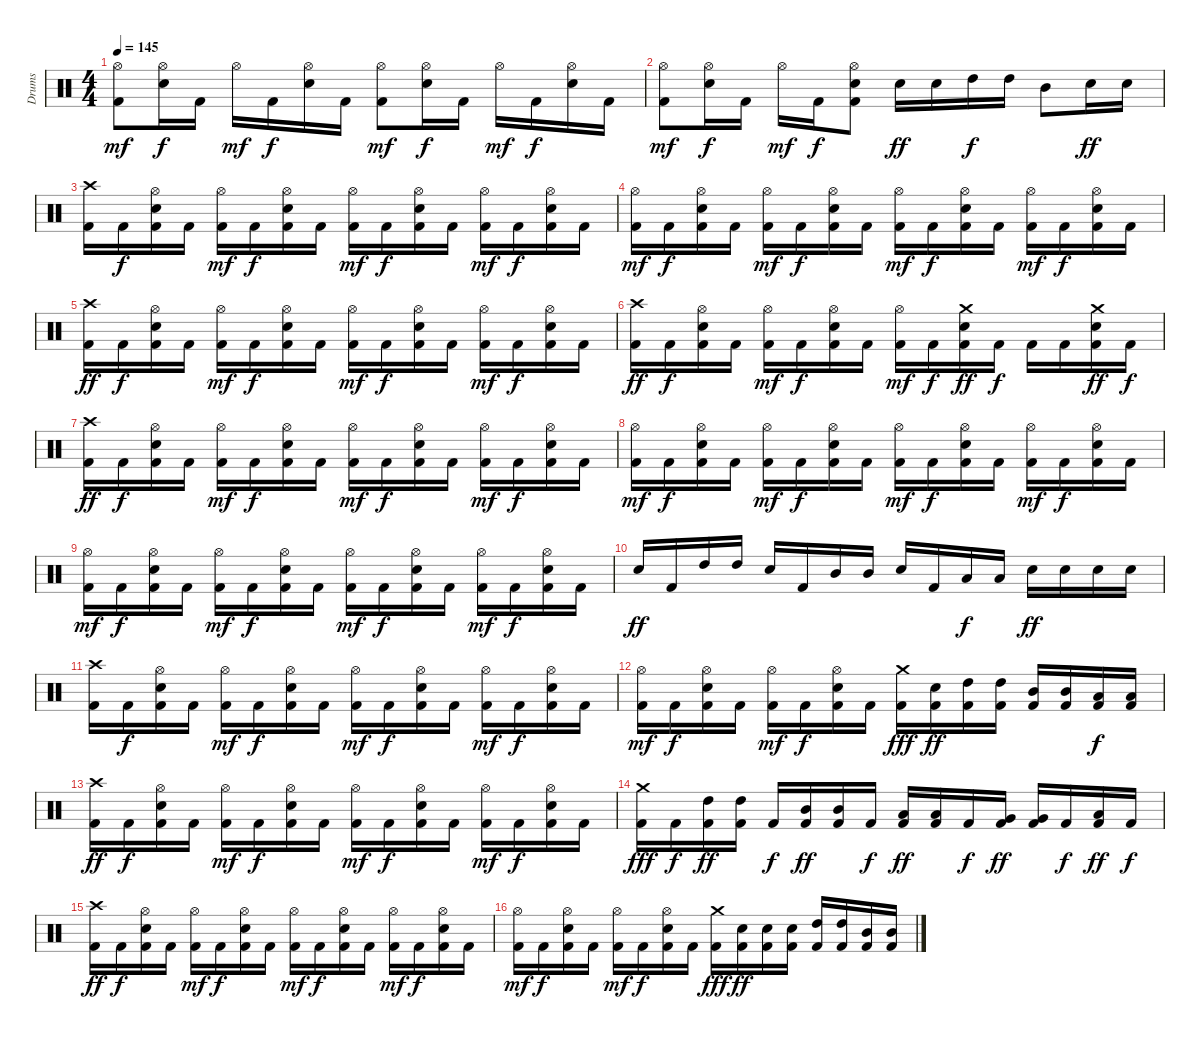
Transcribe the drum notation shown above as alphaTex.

\track ("Drums" "Drums") {instrument percussion}
\staff {score}
\articulation defaults
\ts (4 4)
\tempo 145
\clef neutral
\ks c
("Kick (hit) 2" "Hi-Hat (open)").8{dy mf} ("Snare (hit) 2" "Hi-Hat (open)").16{dy f} "Kick (hit) 2".16 "Hi-Hat (open)".16{dy mf} "Kick (hit) 2".16{dy f} ("Snare (hit) 2" "Hi-Hat (open)").16 "Kick (hit) 2".16 ("Kick (hit) 2" "Hi-Hat (open)").8{dy mf} ("Snare (hit) 2" "Hi-Hat (open)").16{dy f} "Kick (hit) 2".16 "Hi-Hat (open)".16{dy mf} "Kick (hit) 2".16{dy f} ("Snare (hit) 2" "Hi-Hat (open)").16 "Kick (hit) 2".16 |
("Kick (hit) 2" "Hi-Hat (open)").8{dy mf} ("Snare (hit) 2" "Hi-Hat (open)").16{dy f} "Kick (hit) 2".16 "Hi-Hat (open)".16{dy mf} "Kick (hit) 2".16{dy f} ("Kick (hit) 2" "Snare (hit) 2" "Hi-Hat (open)").8 "Snare (hit) 2".16{dy ff} "Snare (hit) 2".16 "High Tom (hit)".16{dy f} "High Tom (hit)".16 "Mid Tom (hit)".8 "Snare (hit) 2".16{dy ff} "Snare (hit) 2".16 |
("Crash high (hit)" "Kick (hit) 2").16 "Kick (hit) 2".16{dy f} ("Snare (hit) 2" "Hi-Hat (open)" "Kick (hit) 2").16 "Kick (hit) 2".16 ("Hi-Hat (open)" "Kick (hit) 2").16{dy mf} "Kick (hit) 2".16{dy f} ("Snare (hit) 2" "Hi-Hat (open)" "Kick (hit) 2").16 "Kick (hit) 2".16 ("Hi-Hat (open)" "Kick (hit) 2").16{dy mf} "Kick (hit) 2".16{dy f} ("Snare (hit) 2" "Hi-Hat (open)" "Kick (hit) 2").16 "Kick (hit) 2".16 ("Hi-Hat (open)" "Kick (hit) 2").16{dy mf} "Kick (hit) 2".16{dy f} ("Snare (hit) 2" "Hi-Hat (open)" "Kick (hit) 2").16 "Kick (hit) 2".16 |
("Hi-Hat (open)" "Kick (hit) 2").16{dy mf} "Kick (hit) 2".16{dy f} ("Snare (hit) 2" "Hi-Hat (open)" "Kick (hit) 2").16 "Kick (hit) 2".16 ("Hi-Hat (open)" "Kick (hit) 2").16{dy mf} "Kick (hit) 2".16{dy f} ("Snare (hit) 2" "Hi-Hat (open)" "Kick (hit) 2").16 "Kick (hit) 2".16 ("Hi-Hat (open)" "Kick (hit) 2").16{dy mf} "Kick (hit) 2".16{dy f} ("Snare (hit) 2" "Hi-Hat (open)" "Kick (hit) 2").16 "Kick (hit) 2".16 ("Hi-Hat (open)" "Kick (hit) 2").16{dy mf} "Kick (hit) 2".16{dy f} ("Snare (hit) 2" "Hi-Hat (open)" "Kick (hit) 2").16 "Kick (hit) 2".16 |
("Kick (hit) 2" "Crash high (hit)").16{dy ff} "Kick (hit) 2".16{dy f} ("Kick (hit) 2" "Snare (hit) 2" "Hi-Hat (open)").16 "Kick (hit) 2".16 ("Kick (hit) 2" "Hi-Hat (open)").16{dy mf} "Kick (hit) 2".16{dy f} ("Kick (hit) 2" "Snare (hit) 2" "Hi-Hat (open)").16 "Kick (hit) 2".16 ("Kick (hit) 2" "Hi-Hat (open)").16{dy mf} "Kick (hit) 2".16{dy f} ("Kick (hit) 2" "Snare (hit) 2" "Hi-Hat (open)").16 "Kick (hit) 2".16 ("Kick (hit) 2" "Hi-Hat (open)").16{dy mf} "Kick (hit) 2".16{dy f} ("Kick (hit) 2" "Snare (hit) 2" "Hi-Hat (open)").16 "Kick (hit) 2".16 |
("Kick (hit) 2" "Crash high (hit)").16{dy ff} "Kick (hit) 2".16{dy f} ("Kick (hit) 2" "Snare (hit) 2" "Hi-Hat (open)").16 "Kick (hit) 2".16 ("Kick (hit) 2" "Hi-Hat (open)").16{dy mf} "Kick (hit) 2".16{dy f} ("Kick (hit) 2" "Snare (hit) 2" "Hi-Hat (open)").16 "Kick (hit) 2".16 ("Kick (hit) 2" "Hi-Hat (open)").16{dy mf} "Kick (hit) 2".16{dy f} ("Kick (hit) 2" "Snare (hit) 2" "Crash medium (hit)").16{dy ff} "Kick (hit) 2".16{dy f} "Kick (hit) 2".16 "Kick (hit) 2".16 ("Kick (hit) 2" "Snare (hit) 2" "Crash medium (hit)").16{dy ff} "Kick (hit) 2".16{dy f} |
("Crash high (hit)" "Kick (hit) 2").16{dy ff} "Kick (hit) 2".16{dy f} ("Snare (hit) 2" "Hi-Hat (open)" "Kick (hit) 2").16 "Kick (hit) 2".16 ("Hi-Hat (open)" "Kick (hit) 2").16{dy mf} "Kick (hit) 2".16{dy f} ("Snare (hit) 2" "Hi-Hat (open)" "Kick (hit) 2").16 "Kick (hit) 2".16 ("Hi-Hat (open)" "Kick (hit) 2").16{dy mf} "Kick (hit) 2".16{dy f} ("Snare (hit) 2" "Hi-Hat (open)" "Kick (hit) 2").16 "Kick (hit) 2".16 ("Hi-Hat (open)" "Kick (hit) 2").16{dy mf} "Kick (hit) 2".16{dy f} ("Snare (hit) 2" "Hi-Hat (open)" "Kick (hit) 2").16 "Kick (hit) 2".16 |
("Kick (hit) 2" "Hi-Hat (open)").16{dy mf} "Kick (hit) 2".16{dy f} ("Kick (hit) 2" "Snare (hit) 2" "Hi-Hat (open)").16 "Kick (hit) 2".16 ("Kick (hit) 2" "Hi-Hat (open)").16{dy mf} "Kick (hit) 2".16{dy f} ("Kick (hit) 2" "Snare (hit) 2" "Hi-Hat (open)").16 "Kick (hit) 2".16 ("Kick (hit) 2" "Hi-Hat (open)").16{dy mf} "Kick (hit) 2".16{dy f} ("Kick (hit) 2" "Snare (hit) 2" "Hi-Hat (open)").16 "Kick (hit) 2".16 ("Kick (hit) 2" "Hi-Hat (open)").16{dy mf} "Kick (hit) 2".16{dy f} ("Kick (hit) 2" "Snare (hit) 2" "Hi-Hat (open)").16 "Kick (hit) 2".16 |
("Kick (hit) 2" "Hi-Hat (open)").16{dy mf} "Kick (hit) 2".16{dy f} ("Kick (hit) 2" "Snare (hit) 2" "Hi-Hat (open)").16 "Kick (hit) 2".16 ("Kick (hit) 2" "Hi-Hat (open)").16{dy mf} "Kick (hit) 2".16{dy f} ("Kick (hit) 2" "Snare (hit) 2" "Hi-Hat (open)").16 "Kick (hit) 2".16 ("Kick (hit) 2" "Hi-Hat (open)").16{dy mf} "Kick (hit) 2".16{dy f} ("Kick (hit) 2" "Snare (hit) 2" "Hi-Hat (open)").16 "Kick (hit) 2".16 ("Kick (hit) 2" "Hi-Hat (open)").16{dy mf} "Kick (hit) 2".16{dy f} ("Kick (hit) 2" "Snare (hit) 2" "Hi-Hat (open)").16 "Kick (hit) 2".16 |
"Snare (hit) 2".16{dy ff} "Kick (hit) 2".16 "High Tom (hit)".16 "High Tom (hit)".16 "Snare (hit) 2".16 "Kick (hit) 2".16 "Mid Tom (hit)".16 "Mid Tom (hit)".16 "Snare (hit) 2".16 "Kick (hit) 2".16 "Low Tom (hit)".16{dy f} "Low Tom (hit)".16 "Snare (hit) 2".16{dy ff} "Snare (hit) 2".16 "Snare (hit) 2".16 "Snare (hit) 2".16 |
("Crash high (hit)" "Kick (hit) 2").16 "Kick (hit) 2".16{dy f} ("Snare (hit) 2" "Hi-Hat (open)" "Kick (hit) 2").16 "Kick (hit) 2".16 ("Hi-Hat (open)" "Kick (hit) 2").16{dy mf} "Kick (hit) 2".16{dy f} ("Snare (hit) 2" "Hi-Hat (open)" "Kick (hit) 2").16 "Kick (hit) 2".16 ("Hi-Hat (open)" "Kick (hit) 2").16{dy mf} "Kick (hit) 2".16{dy f} ("Snare (hit) 2" "Hi-Hat (open)" "Kick (hit) 2").16 "Kick (hit) 2".16 ("Hi-Hat (open)" "Kick (hit) 2").16{dy mf} "Kick (hit) 2".16{dy f} ("Snare (hit) 2" "Hi-Hat (open)" "Kick (hit) 2").16 "Kick (hit) 2".16 |
("Hi-Hat (open)" "Kick (hit) 2").16{dy mf} "Kick (hit) 2".16{dy f} ("Snare (hit) 2" "Hi-Hat (open)" "Kick (hit) 2").16 "Kick (hit) 2".16 ("Hi-Hat (open)" "Kick (hit) 2").16{dy mf} "Kick (hit) 2".16{dy f} ("Snare (hit) 2" "Hi-Hat (open)" "Kick (hit) 2").16 "Kick (hit) 2".16 ("Crash medium (hit)" "Kick (hit) 2").16{dy fff} ("Snare (hit) 2" "Kick (hit) 2").16{dy ff} ("High Tom (hit)" "Kick (hit) 2").16 ("High Tom (hit)" "Kick (hit) 2").16 ("Mid Tom (hit)" "Kick (hit) 2").16 ("Mid Tom (hit)" "Kick (hit) 2").16 ("Low Tom (hit)" "Kick (hit) 2").16{dy f} ("Low Tom (hit)" "Kick (hit) 2").16 |
("Crash high (hit)" "Kick (hit) 2").16{dy ff} "Kick (hit) 2".16{dy f} ("Snare (hit) 2" "Hi-Hat (open)" "Kick (hit) 2").16 "Kick (hit) 2".16 ("Hi-Hat (open)" "Kick (hit) 2").16{dy mf} "Kick (hit) 2".16{dy f} ("Snare (hit) 2" "Hi-Hat (open)" "Kick (hit) 2").16 "Kick (hit) 2".16 ("Hi-Hat (open)" "Kick (hit) 2").16{dy mf} "Kick (hit) 2".16{dy f} ("Snare (hit) 2" "Hi-Hat (open)" "Kick (hit) 2").16 "Kick (hit) 2".16 ("Hi-Hat (open)" "Kick (hit) 2").16{dy mf} "Kick (hit) 2".16{dy f} ("Snare (hit) 2" "Hi-Hat (open)" "Kick (hit) 2").16 "Kick (hit) 2".16 |
("Crash medium (hit)" "Kick (hit) 2").16{dy fff} "Kick (hit) 2".16{dy f} ("High Tom (hit)" "Kick (hit) 2").16{dy ff} ("High Tom (hit)" "Kick (hit) 2").16 "Kick (hit) 2".16{dy f} ("Mid Tom (hit)" "Kick (hit) 2").16{dy ff} ("Mid Tom (hit)" "Kick (hit) 2").16 "Kick (hit) 2".16{dy f} ("Low Tom (hit)" "Kick (hit) 2").16{dy ff} ("Low Tom (hit)" "Kick (hit) 2").16 "Kick (hit) 2".16{dy f} ("Very Low Tom (hit)" "Kick (hit) 2").16{dy ff} ("Very Low Tom (hit)" "Kick (hit) 2").16 "Kick (hit) 2".16{dy f} ("Low Floor Tom (hit)" "Kick (hit) 2").16{dy ff} "Kick (hit) 2".16{dy f} |
("Crash high (hit)" "Kick (hit) 2").16{dy ff} "Kick (hit) 2".16{dy f} ("Snare (hit) 2" "Hi-Hat (open)" "Kick (hit) 2").16 "Kick (hit) 2".16 ("Hi-Hat (open)" "Kick (hit) 2").16{dy mf} "Kick (hit) 2".16{dy f} ("Snare (hit) 2" "Hi-Hat (open)" "Kick (hit) 2").16 "Kick (hit) 2".16 ("Hi-Hat (open)" "Kick (hit) 2").16{dy mf} "Kick (hit) 2".16{dy f} ("Snare (hit) 2" "Hi-Hat (open)" "Kick (hit) 2").16 "Kick (hit) 2".16 ("Hi-Hat (open)" "Kick (hit) 2").16{dy mf} "Kick (hit) 2".16{dy f} ("Snare (hit) 2" "Hi-Hat (open)" "Kick (hit) 2").16 "Kick (hit) 2".16 |
("Hi-Hat (open)" "Kick (hit) 2").16{dy mf} "Kick (hit) 2".16{dy f} ("Snare (hit) 2" "Hi-Hat (open)" "Kick (hit) 2").16 "Kick (hit) 2".16 ("Hi-Hat (open)" "Kick (hit) 2").16{dy mf} "Kick (hit) 2".16{dy f} ("Snare (hit) 2" "Hi-Hat (open)" "Kick (hit) 2").16 "Kick (hit) 2".16 ("Crash medium (hit)" "Kick (hit) 2").16{dy fff} ("Snare (hit) 2" "Kick (hit) 2").16{dy ff} ("Snare (hit) 2" "Kick (hit) 2").16 ("Snare (hit) 2" "Kick (hit) 2").16 ("High Tom (hit)" "Kick (hit) 2").16 ("High Tom (hit)" "Kick (hit) 2").16 ("Mid Tom (hit)" "Kick (hit) 2").16 ("Mid Tom (hit)" "Kick (hit) 2").16
